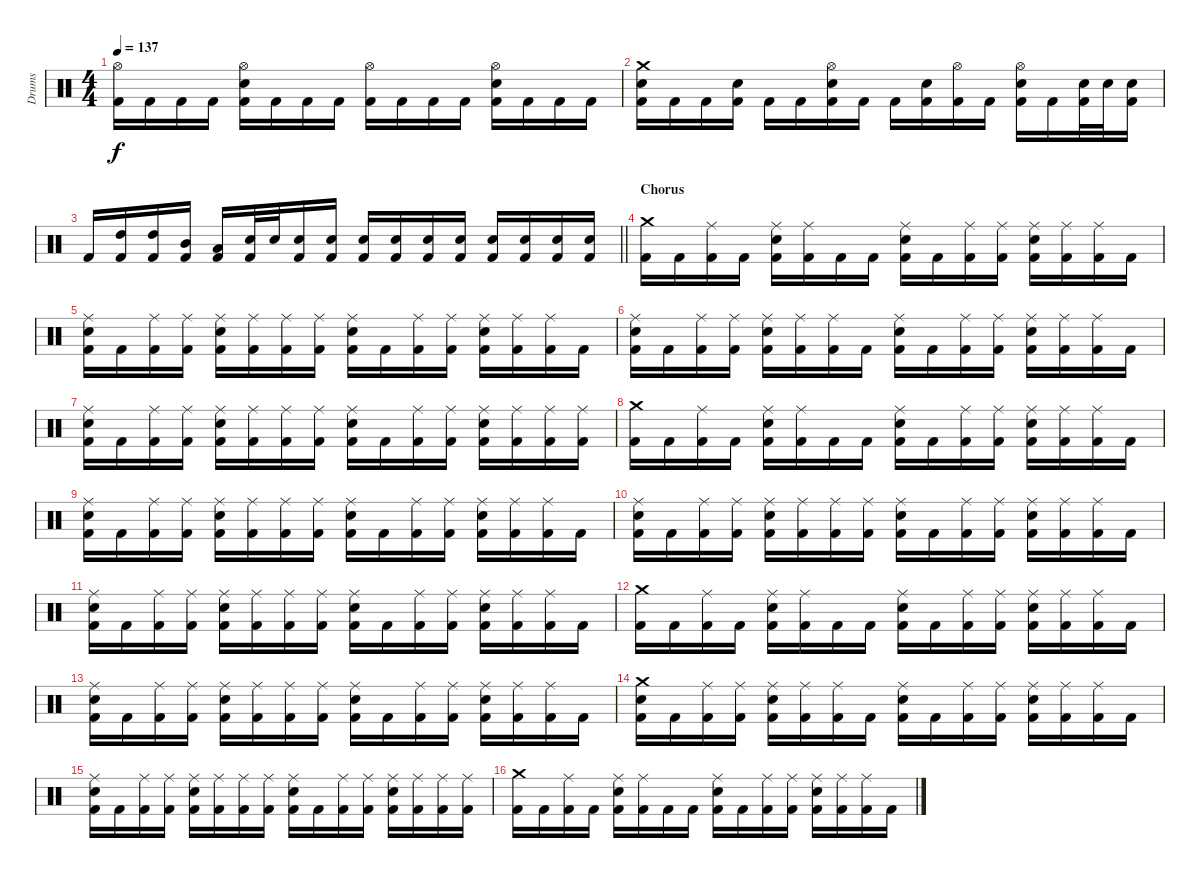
\track ("Drums" "Drums") {instrument percussion}
\staff {score}
\articulation defaults
\ts (4 4)
\tempo 137
\clef neutral
\ks c
("Hi-Hat (open)" "Kick (hit) 2").16{dy f} "Kick (hit) 2".16 "Kick (hit) 2".16 "Kick (hit) 2".16 ("Hi-Hat (open)" "Electric Snare (hit)" "Kick (hit) 2").16 "Kick (hit) 2".16 "Kick (hit) 2".16 "Kick (hit) 2".16 ("Hi-Hat (open)" "Kick (hit) 2").16 "Kick (hit) 2".16 "Kick (hit) 2".16 "Kick (hit) 2".16 ("Hi-Hat (open)" "Electric Snare (hit)" "Kick (hit) 2").16 "Kick (hit) 2".16 "Kick (hit) 2".16 "Kick (hit) 2".16 |
("Crash medium (hit)" "Electric Snare (hit)" "Kick (hit) 2").16 "Kick (hit) 2".16 "Kick (hit) 2".16 ("Electric Snare (hit)" "Kick (hit) 2").16 "Kick (hit) 2".16 "Kick (hit) 2".16 ("Hi-Hat (open)" "Electric Snare (hit)" "Kick (hit) 2").16 "Kick (hit) 2".16 "Kick (hit) 2".16 ("Electric Snare (hit)" "Kick (hit) 2").16 ("Hi-Hat (open)" "Kick (hit) 2").16 "Kick (hit) 2".16 ("Hi-Hat (open)" "Electric Snare (hit)" "Kick (hit) 2").16 "Kick (hit) 2".16 ("Electric Snare (hit)" "Kick (hit) 2").32 "Electric Snare (hit)".32 ("Electric Snare (hit)" "Kick (hit) 2").16 |
\barLineRight lightlight "Kick (hit) 2".16
("High Tom (hit)" "Kick (hit) 2").16 ("High Tom (hit)" "Kick (hit) 2").16 ("Mid Tom (hit)" "Kick (hit) 2").16 ("Low Tom (hit)" "Kick (hit) 2").16 ("Electric Snare (hit)" "Kick (hit) 2").32 "Electric Snare (hit)".32 ("Electric Snare (hit)" "Kick (hit) 2").16 ("Electric Snare (hit)" "Kick (hit) 2").16 ("Electric Snare (hit)" "Kick (hit) 2").16 ("Electric Snare (hit)" "Kick (hit) 2").16 ("Electric Snare (hit)" "Kick (hit) 2").16 ("Electric Snare (hit)" "Kick (hit) 2").16 ("Electric Snare (hit)" "Kick (hit) 2").16 ("Electric Snare (hit)" "Kick (hit) 2").16 ("Electric Snare (hit)" "Kick (hit) 2").16 ("Electric Snare (hit)" "Kick (hit) 2").16 |
\section ("" "Chorus")
("Crash medium (hit)" "Kick (hit) 2").16 "Kick (hit) 2".16 ("Ride (middle)" "Kick (hit) 2").16 "Kick (hit) 2".16 ("Ride (middle)" "Electric Snare (hit)" "Kick (hit) 2").16 ("Ride (middle)" "Kick (hit) 2").16 "Kick (hit) 2".16 "Kick (hit) 2".16 ("Ride (middle)" "Electric Snare (hit)" "Kick (hit) 2").16 "Kick (hit) 2".16 ("Ride (middle)" "Kick (hit) 2").16 ("Ride (middle)" "Kick (hit) 2").16 ("Ride (middle)" "Electric Snare (hit)" "Kick (hit) 2").16 ("Ride (middle)" "Kick (hit) 2").16 ("Ride (middle)" "Kick (hit) 2").16 "Kick (hit) 2".16 |
("Ride (middle)" "Electric Snare (hit)" "Kick (hit) 2").16 "Kick (hit) 2".16 ("Ride (middle)" "Kick (hit) 2").16 ("Ride (middle)" "Kick (hit) 2").16 ("Ride (middle)" "Electric Snare (hit)" "Kick (hit) 2").16 ("Ride (middle)" "Kick (hit) 2").16 ("Ride (middle)" "Kick (hit) 2").16 ("Ride (middle)" "Kick (hit) 2").16 ("Ride (middle)" "Electric Snare (hit)" "Kick (hit) 2").16 "Kick (hit) 2".16 ("Ride (middle)" "Kick (hit) 2").16 ("Ride (middle)" "Kick (hit) 2").16 ("Ride (middle)" "Electric Snare (hit)" "Kick (hit) 2").16 ("Ride (middle)" "Kick (hit) 2").16 ("Ride (middle)" "Kick (hit) 2").16 "Kick (hit) 2".16 |
("Ride (middle)" "Electric Snare (hit)" "Kick (hit) 2").16 "Kick (hit) 2".16 ("Ride (middle)" "Kick (hit) 2").16 ("Ride (middle)" "Kick (hit) 2").16 ("Ride (middle)" "Electric Snare (hit)" "Kick (hit) 2").16 ("Ride (middle)" "Kick (hit) 2").16 ("Ride (middle)" "Kick (hit) 2").16 "Kick (hit) 2".16 ("Ride (middle)" "Electric Snare (hit)" "Kick (hit) 2").16 "Kick (hit) 2".16 ("Ride (middle)" "Kick (hit) 2").16 ("Ride (middle)" "Kick (hit) 2").16 ("Ride (middle)" "Electric Snare (hit)" "Kick (hit) 2").16 ("Ride (middle)" "Kick (hit) 2").16 ("Ride (middle)" "Kick (hit) 2").16 "Kick (hit) 2".16 |
("Ride (middle)" "Electric Snare (hit)" "Kick (hit) 2").16 "Kick (hit) 2".16 ("Ride (middle)" "Kick (hit) 2").16 ("Ride (middle)" "Kick (hit) 2").16 ("Ride (middle)" "Electric Snare (hit)" "Kick (hit) 2").16 ("Ride (middle)" "Kick (hit) 2").16 ("Ride (middle)" "Kick (hit) 2").16 ("Ride (middle)" "Kick (hit) 2").16 ("Ride (middle)" "Electric Snare (hit)" "Kick (hit) 2").16 "Kick (hit) 2".16 ("Ride (middle)" "Kick (hit) 2").16 ("Ride (middle)" "Kick (hit) 2").16 ("Ride (middle)" "Electric Snare (hit)" "Kick (hit) 2").16 ("Ride (middle)" "Kick (hit) 2").16 ("Ride (middle)" "Kick (hit) 2").16 ("Ride (middle)" "Kick (hit) 2").16 |
("Crash medium (hit)" "Kick (hit) 2").16 "Kick (hit) 2".16 ("Ride (middle)" "Kick (hit) 2").16 "Kick (hit) 2".16 ("Ride (middle)" "Electric Snare (hit)" "Kick (hit) 2").16 ("Ride (middle)" "Kick (hit) 2").16 "Kick (hit) 2".16 "Kick (hit) 2".16 ("Ride (middle)" "Electric Snare (hit)" "Kick (hit) 2").16 "Kick (hit) 2".16 ("Ride (middle)" "Kick (hit) 2").16 ("Ride (middle)" "Kick (hit) 2").16 ("Ride (middle)" "Electric Snare (hit)" "Kick (hit) 2").16 ("Ride (middle)" "Kick (hit) 2").16 ("Ride (middle)" "Kick (hit) 2").16 "Kick (hit) 2".16 |
("Ride (middle)" "Electric Snare (hit)" "Kick (hit) 2").16 "Kick (hit) 2".16 ("Ride (middle)" "Kick (hit) 2").16 ("Ride (middle)" "Kick (hit) 2").16 ("Ride (middle)" "Electric Snare (hit)" "Kick (hit) 2").16 ("Ride (middle)" "Kick (hit) 2").16 ("Ride (middle)" "Kick (hit) 2").16 ("Ride (middle)" "Kick (hit) 2").16 ("Ride (middle)" "Electric Snare (hit)" "Kick (hit) 2").16 "Kick (hit) 2".16 ("Ride (middle)" "Kick (hit) 2").16 ("Ride (middle)" "Kick (hit) 2").16 ("Ride (middle)" "Electric Snare (hit)" "Kick (hit) 2").16 ("Ride (middle)" "Kick (hit) 2").16 ("Ride (middle)" "Kick (hit) 2").16 "Kick (hit) 2".16 |
("Ride (middle)" "Electric Snare (hit)" "Kick (hit) 2").16 "Kick (hit) 2".16 ("Ride (middle)" "Kick (hit) 2").16 ("Ride (middle)" "Kick (hit) 2").16 ("Ride (middle)" "Electric Snare (hit)" "Kick (hit) 2").16 ("Ride (middle)" "Kick (hit) 2").16 ("Ride (middle)" "Kick (hit) 2").16 ("Ride (middle)" "Kick (hit) 2").16 ("Ride (middle)" "Electric Snare (hit)" "Kick (hit) 2").16 "Kick (hit) 2".16 ("Ride (middle)" "Kick (hit) 2").16 ("Ride (middle)" "Kick (hit) 2").16 ("Ride (middle)" "Electric Snare (hit)" "Kick (hit) 2").16 ("Ride (middle)" "Kick (hit) 2").16 ("Ride (middle)" "Kick (hit) 2").16 "Kick (hit) 2".16 |
("Ride (middle)" "Electric Snare (hit)" "Kick (hit) 2").16 "Kick (hit) 2".16 ("Ride (middle)" "Kick (hit) 2").16 ("Ride (middle)" "Kick (hit) 2").16 ("Ride (middle)" "Electric Snare (hit)" "Kick (hit) 2").16 ("Ride (middle)" "Kick (hit) 2").16 ("Ride (middle)" "Kick (hit) 2").16 ("Ride (middle)" "Kick (hit) 2").16 ("Ride (middle)" "Electric Snare (hit)" "Kick (hit) 2").16 "Kick (hit) 2".16 ("Ride (middle)" "Kick (hit) 2").16 ("Ride (middle)" "Kick (hit) 2").16 ("Ride (middle)" "Electric Snare (hit)" "Kick (hit) 2").16 ("Ride (middle)" "Kick (hit) 2").16 ("Ride (middle)" "Kick (hit) 2").16 "Kick (hit) 2".16 |
("Crash medium (hit)" "Kick (hit) 2").16 "Kick (hit) 2".16 ("Ride (middle)" "Kick (hit) 2").16 "Kick (hit) 2".16 ("Ride (middle)" "Electric Snare (hit)" "Kick (hit) 2").16 ("Ride (middle)" "Kick (hit) 2").16 "Kick (hit) 2".16 "Kick (hit) 2".16 ("Ride (middle)" "Electric Snare (hit)" "Kick (hit) 2").16 "Kick (hit) 2".16 ("Ride (middle)" "Kick (hit) 2").16 ("Ride (middle)" "Kick (hit) 2").16 ("Ride (middle)" "Electric Snare (hit)" "Kick (hit) 2").16 ("Ride (middle)" "Kick (hit) 2").16 ("Ride (middle)" "Kick (hit) 2").16 "Kick (hit) 2".16 |
("Ride (middle)" "Electric Snare (hit)" "Kick (hit) 2").16 "Kick (hit) 2".16 ("Ride (middle)" "Kick (hit) 2").16 ("Ride (middle)" "Kick (hit) 2").16 ("Ride (middle)" "Electric Snare (hit)" "Kick (hit) 2").16 ("Ride (middle)" "Kick (hit) 2").16 ("Ride (middle)" "Kick (hit) 2").16 ("Ride (middle)" "Kick (hit) 2").16 ("Ride (middle)" "Electric Snare (hit)" "Kick (hit) 2").16 "Kick (hit) 2".16 ("Ride (middle)" "Kick (hit) 2").16 ("Ride (middle)" "Kick (hit) 2").16 ("Ride (middle)" "Electric Snare (hit)" "Kick (hit) 2").16 ("Ride (middle)" "Kick (hit) 2").16 ("Ride (middle)" "Kick (hit) 2").16 "Kick (hit) 2".16 |
("Crash medium (hit)" "Electric Snare (hit)" "Kick (hit) 2").16 "Kick (hit) 2".16 ("Ride (middle)" "Kick (hit) 2").16 ("Ride (middle)" "Kick (hit) 2").16 ("Ride (middle)" "Electric Snare (hit)" "Kick (hit) 2").16 ("Ride (middle)" "Kick (hit) 2").16 ("Ride (middle)" "Kick (hit) 2").16 "Kick (hit) 2".16 ("Ride (middle)" "Electric Snare (hit)" "Kick (hit) 2").16 "Kick (hit) 2".16 ("Ride (middle)" "Kick (hit) 2").16 ("Ride (middle)" "Kick (hit) 2").16 ("Ride (middle)" "Electric Snare (hit)" "Kick (hit) 2").16 ("Ride (middle)" "Kick (hit) 2").16 ("Ride (middle)" "Kick (hit) 2").16 "Kick (hit) 2".16 |
("Ride (middle)" "Electric Snare (hit)" "Kick (hit) 2").16 "Kick (hit) 2".16 ("Ride (middle)" "Kick (hit) 2").16 ("Ride (middle)" "Kick (hit) 2").16 ("Ride (middle)" "Electric Snare (hit)" "Kick (hit) 2").16 ("Ride (middle)" "Kick (hit) 2").16 ("Ride (middle)" "Kick (hit) 2").16 ("Ride (middle)" "Kick (hit) 2").16 ("Ride (middle)" "Electric Snare (hit)" "Kick (hit) 2").16 "Kick (hit) 2".16 ("Ride (middle)" "Kick (hit) 2").16 ("Ride (middle)" "Kick (hit) 2").16 ("Ride (middle)" "Electric Snare (hit)" "Kick (hit) 2").16 ("Ride (middle)" "Kick (hit) 2").16 ("Ride (middle)" "Kick (hit) 2").16 ("Ride (middle)" "Kick (hit) 2").16 |
("Crash medium (hit)" "Kick (hit) 2").16 "Kick (hit) 2".16 ("Ride (middle)" "Kick (hit) 2").16 "Kick (hit) 2".16 ("Ride (middle)" "Electric Snare (hit)" "Kick (hit) 2").16 ("Ride (middle)" "Kick (hit) 2").16 "Kick (hit) 2".16 "Kick (hit) 2".16 ("Ride (middle)" "Electric Snare (hit)" "Kick (hit) 2").16 "Kick (hit) 2".16 ("Ride (middle)" "Kick (hit) 2").16 ("Ride (middle)" "Kick (hit) 2").16 ("Ride (middle)" "Electric Snare (hit)" "Kick (hit) 2").16 ("Ride (middle)" "Kick (hit) 2").16 ("Ride (middle)" "Kick (hit) 2").16 "Kick (hit) 2".16
